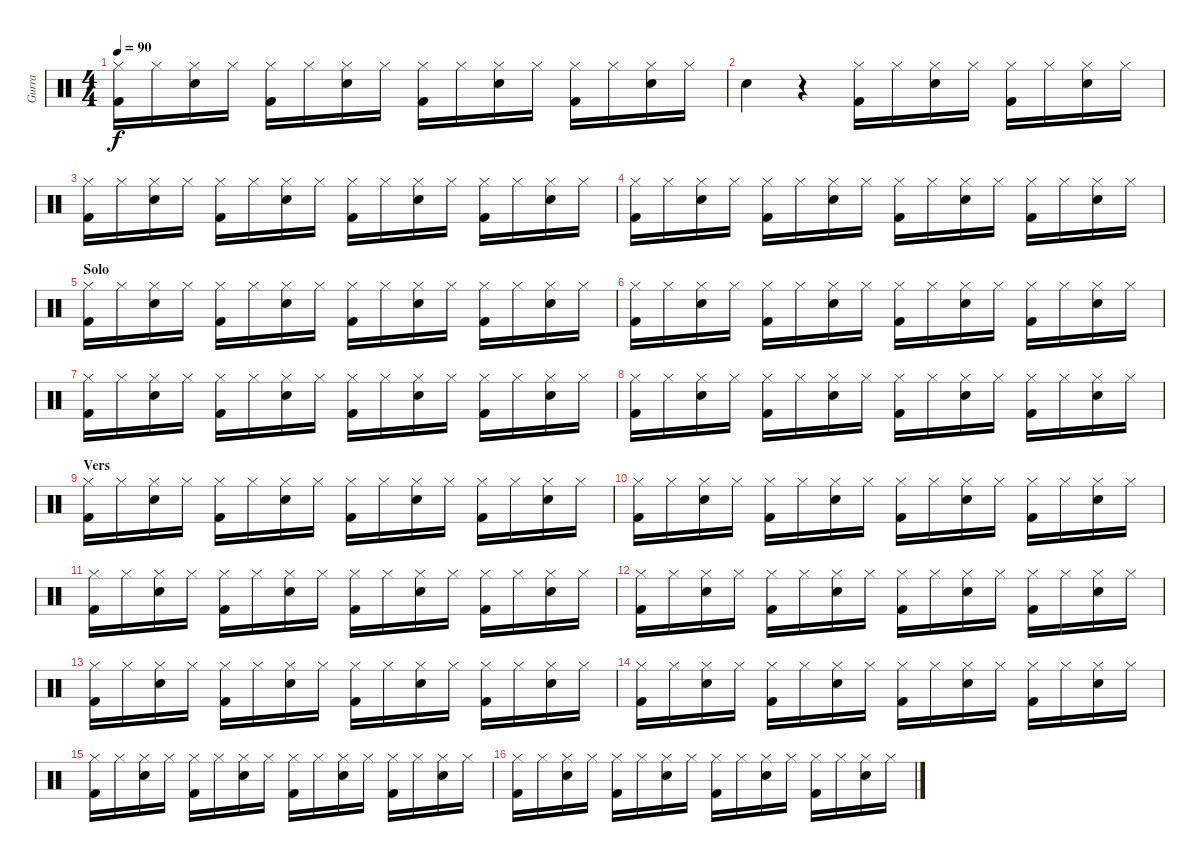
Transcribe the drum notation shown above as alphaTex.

\track ("Gurra" "Gurra") {instrument percussion}
\staff {score}
\articulation defaults
\ts (4 4)
\tempo 90
\clef neutral
\ks c
("Kick (hit) 2" "Hi-Hat (closed)").16{dy f} "Hi-Hat (closed)".16 ("Snare (hit) 2" "Hi-Hat (closed)").16 "Hi-Hat (closed)".16 ("Kick (hit) 2" "Hi-Hat (closed)").16 "Hi-Hat (closed)".16 ("Snare (hit) 2" "Hi-Hat (closed)").16 "Hi-Hat (closed)".16 ("Kick (hit) 2" "Hi-Hat (closed)").16 "Hi-Hat (closed)".16 ("Snare (hit) 2" "Hi-Hat (closed)").16 "Hi-Hat (closed)".16 ("Kick (hit) 2" "Hi-Hat (closed)").16 "Hi-Hat (closed)".16 ("Snare (hit) 2" "Hi-Hat (closed)").16 "Hi-Hat (closed)".16 |
"Snare (hit) 2".4 r.4 ("Kick (hit) 2" "Hi-Hat (closed)").16 "Hi-Hat (closed)".16 ("Snare (hit) 2" "Hi-Hat (closed)").16 "Hi-Hat (closed)".16 ("Kick (hit) 2" "Hi-Hat (closed)").16 "Hi-Hat (closed)".16 ("Snare (hit) 2" "Hi-Hat (closed)").16 "Hi-Hat (closed)".16 |
("Kick (hit) 2" "Hi-Hat (closed)").16 "Hi-Hat (closed)".16 ("Snare (hit) 2" "Hi-Hat (closed)").16 "Hi-Hat (closed)".16 ("Kick (hit) 2" "Hi-Hat (closed)").16 "Hi-Hat (closed)".16 ("Snare (hit) 2" "Hi-Hat (closed)").16 "Hi-Hat (closed)".16 ("Kick (hit) 2" "Hi-Hat (closed)").16 "Hi-Hat (closed)".16 ("Snare (hit) 2" "Hi-Hat (closed)").16 "Hi-Hat (closed)".16 ("Kick (hit) 2" "Hi-Hat (closed)").16 "Hi-Hat (closed)".16 ("Snare (hit) 2" "Hi-Hat (closed)").16 "Hi-Hat (closed)".16 |
("Kick (hit) 2" "Hi-Hat (closed)").16 "Hi-Hat (closed)".16 ("Snare (hit) 2" "Hi-Hat (closed)").16 "Hi-Hat (closed)".16 ("Kick (hit) 2" "Hi-Hat (closed)").16 "Hi-Hat (closed)".16 ("Snare (hit) 2" "Hi-Hat (closed)").16 "Hi-Hat (closed)".16 ("Kick (hit) 2" "Hi-Hat (closed)").16 "Hi-Hat (closed)".16 ("Snare (hit) 2" "Hi-Hat (closed)").16 "Hi-Hat (closed)".16 ("Kick (hit) 2" "Hi-Hat (closed)").16 "Hi-Hat (closed)".16 ("Snare (hit) 2" "Hi-Hat (closed)").16 "Hi-Hat (closed)".16 |
\section ("" "Solo")
("Kick (hit) 2" "Hi-Hat (closed)").16 "Hi-Hat (closed)".16 ("Snare (hit) 2" "Hi-Hat (closed)").16 "Hi-Hat (closed)".16 ("Kick (hit) 2" "Hi-Hat (closed)").16 "Hi-Hat (closed)".16 ("Snare (hit) 2" "Hi-Hat (closed)").16 "Hi-Hat (closed)".16 ("Kick (hit) 2" "Hi-Hat (closed)").16 "Hi-Hat (closed)".16 ("Snare (hit) 2" "Hi-Hat (closed)").16 "Hi-Hat (closed)".16 ("Kick (hit) 2" "Hi-Hat (closed)").16 "Hi-Hat (closed)".16 ("Snare (hit) 2" "Hi-Hat (closed)").16 "Hi-Hat (closed)".16 |
("Kick (hit) 2" "Hi-Hat (closed)").16 "Hi-Hat (closed)".16 ("Snare (hit) 2" "Hi-Hat (closed)").16 "Hi-Hat (closed)".16 ("Kick (hit) 2" "Hi-Hat (closed)").16 "Hi-Hat (closed)".16 ("Snare (hit) 2" "Hi-Hat (closed)").16 "Hi-Hat (closed)".16 ("Kick (hit) 2" "Hi-Hat (closed)").16 "Hi-Hat (closed)".16 ("Snare (hit) 2" "Hi-Hat (closed)").16 "Hi-Hat (closed)".16 ("Kick (hit) 2" "Hi-Hat (closed)").16 "Hi-Hat (closed)".16 ("Snare (hit) 2" "Hi-Hat (closed)").16 "Hi-Hat (closed)".16 |
("Kick (hit) 2" "Hi-Hat (closed)").16 "Hi-Hat (closed)".16 ("Snare (hit) 2" "Hi-Hat (closed)").16 "Hi-Hat (closed)".16 ("Kick (hit) 2" "Hi-Hat (closed)").16 "Hi-Hat (closed)".16 ("Snare (hit) 2" "Hi-Hat (closed)").16 "Hi-Hat (closed)".16 ("Kick (hit) 2" "Hi-Hat (closed)").16 "Hi-Hat (closed)".16 ("Snare (hit) 2" "Hi-Hat (closed)").16 "Hi-Hat (closed)".16 ("Kick (hit) 2" "Hi-Hat (closed)").16 "Hi-Hat (closed)".16 ("Snare (hit) 2" "Hi-Hat (closed)").16 "Hi-Hat (closed)".16 |
("Kick (hit) 2" "Hi-Hat (closed)").16 "Hi-Hat (closed)".16 ("Snare (hit) 2" "Hi-Hat (closed)").16 "Hi-Hat (closed)".16 ("Kick (hit) 2" "Hi-Hat (closed)").16 "Hi-Hat (closed)".16 ("Snare (hit) 2" "Hi-Hat (closed)").16 "Hi-Hat (closed)".16 ("Kick (hit) 2" "Hi-Hat (closed)").16 "Hi-Hat (closed)".16 ("Snare (hit) 2" "Hi-Hat (closed)").16 "Hi-Hat (closed)".16 ("Kick (hit) 2" "Hi-Hat (closed)").16 "Hi-Hat (closed)".16 ("Snare (hit) 2" "Hi-Hat (closed)").16 "Hi-Hat (closed)".16 |
\section ("" "Vers")
("Kick (hit) 2" "Hi-Hat (closed)").16 "Hi-Hat (closed)".16 ("Snare (hit) 2" "Hi-Hat (closed)").16 "Hi-Hat (closed)".16 ("Kick (hit) 2" "Hi-Hat (closed)").16 "Hi-Hat (closed)".16 ("Snare (hit) 2" "Hi-Hat (closed)").16 "Hi-Hat (closed)".16 ("Kick (hit) 2" "Hi-Hat (closed)").16 "Hi-Hat (closed)".16 ("Snare (hit) 2" "Hi-Hat (closed)").16 "Hi-Hat (closed)".16 ("Kick (hit) 2" "Hi-Hat (closed)").16 "Hi-Hat (closed)".16 ("Snare (hit) 2" "Hi-Hat (closed)").16 "Hi-Hat (closed)".16 |
("Kick (hit) 2" "Hi-Hat (closed)").16 "Hi-Hat (closed)".16 ("Snare (hit) 2" "Hi-Hat (closed)").16 "Hi-Hat (closed)".16 ("Kick (hit) 2" "Hi-Hat (closed)").16 "Hi-Hat (closed)".16 ("Snare (hit) 2" "Hi-Hat (closed)").16 "Hi-Hat (closed)".16 ("Kick (hit) 2" "Hi-Hat (closed)").16 "Hi-Hat (closed)".16 ("Snare (hit) 2" "Hi-Hat (closed)").16 "Hi-Hat (closed)".16 ("Kick (hit) 2" "Hi-Hat (closed)").16 "Hi-Hat (closed)".16 ("Snare (hit) 2" "Hi-Hat (closed)").16 "Hi-Hat (closed)".16 |
("Kick (hit) 2" "Hi-Hat (closed)").16 "Hi-Hat (closed)".16 ("Snare (hit) 2" "Hi-Hat (closed)").16 "Hi-Hat (closed)".16 ("Kick (hit) 2" "Hi-Hat (closed)").16 "Hi-Hat (closed)".16 ("Snare (hit) 2" "Hi-Hat (closed)").16 "Hi-Hat (closed)".16 ("Kick (hit) 2" "Hi-Hat (closed)").16 "Hi-Hat (closed)".16 ("Snare (hit) 2" "Hi-Hat (closed)").16 "Hi-Hat (closed)".16 ("Kick (hit) 2" "Hi-Hat (closed)").16 "Hi-Hat (closed)".16 ("Snare (hit) 2" "Hi-Hat (closed)").16 "Hi-Hat (closed)".16 |
("Kick (hit) 2" "Hi-Hat (closed)").16 "Hi-Hat (closed)".16 ("Snare (hit) 2" "Hi-Hat (closed)").16 "Hi-Hat (closed)".16 ("Kick (hit) 2" "Hi-Hat (closed)").16 "Hi-Hat (closed)".16 ("Snare (hit) 2" "Hi-Hat (closed)").16 "Hi-Hat (closed)".16 ("Kick (hit) 2" "Hi-Hat (closed)").16 "Hi-Hat (closed)".16 ("Snare (hit) 2" "Hi-Hat (closed)").16 "Hi-Hat (closed)".16 ("Kick (hit) 2" "Hi-Hat (closed)").16 "Hi-Hat (closed)".16 ("Snare (hit) 2" "Hi-Hat (closed)").16 "Hi-Hat (closed)".16 |
("Kick (hit) 2" "Hi-Hat (closed)").16 "Hi-Hat (closed)".16 ("Snare (hit) 2" "Hi-Hat (closed)").16 "Hi-Hat (closed)".16 ("Kick (hit) 2" "Hi-Hat (closed)").16 "Hi-Hat (closed)".16 ("Snare (hit) 2" "Hi-Hat (closed)").16 "Hi-Hat (closed)".16 ("Kick (hit) 2" "Hi-Hat (closed)").16 "Hi-Hat (closed)".16 ("Snare (hit) 2" "Hi-Hat (closed)").16 "Hi-Hat (closed)".16 ("Kick (hit) 2" "Hi-Hat (closed)").16 "Hi-Hat (closed)".16 ("Snare (hit) 2" "Hi-Hat (closed)").16 "Hi-Hat (closed)".16 |
("Kick (hit) 2" "Hi-Hat (closed)").16 "Hi-Hat (closed)".16 ("Snare (hit) 2" "Hi-Hat (closed)").16 "Hi-Hat (closed)".16 ("Kick (hit) 2" "Hi-Hat (closed)").16 "Hi-Hat (closed)".16 ("Snare (hit) 2" "Hi-Hat (closed)").16 "Hi-Hat (closed)".16 ("Kick (hit) 2" "Hi-Hat (closed)").16 "Hi-Hat (closed)".16 ("Snare (hit) 2" "Hi-Hat (closed)").16 "Hi-Hat (closed)".16 ("Kick (hit) 2" "Hi-Hat (closed)").16 "Hi-Hat (closed)".16 ("Snare (hit) 2" "Hi-Hat (closed)").16 "Hi-Hat (closed)".16 |
("Kick (hit) 2" "Hi-Hat (closed)").16 "Hi-Hat (closed)".16 ("Snare (hit) 2" "Hi-Hat (closed)").16 "Hi-Hat (closed)".16 ("Kick (hit) 2" "Hi-Hat (closed)").16 "Hi-Hat (closed)".16 ("Snare (hit) 2" "Hi-Hat (closed)").16 "Hi-Hat (closed)".16 ("Kick (hit) 2" "Hi-Hat (closed)").16 "Hi-Hat (closed)".16 ("Snare (hit) 2" "Hi-Hat (closed)").16 "Hi-Hat (closed)".16 ("Kick (hit) 2" "Hi-Hat (closed)").16 "Hi-Hat (closed)".16 ("Snare (hit) 2" "Hi-Hat (closed)").16 "Hi-Hat (closed)".16 |
("Kick (hit) 2" "Hi-Hat (closed)").16 "Hi-Hat (closed)".16 ("Snare (hit) 2" "Hi-Hat (closed)").16 "Hi-Hat (closed)".16 ("Kick (hit) 2" "Hi-Hat (closed)").16 "Hi-Hat (closed)".16 ("Snare (hit) 2" "Hi-Hat (closed)").16 "Hi-Hat (closed)".16 ("Kick (hit) 2" "Hi-Hat (closed)").16 "Hi-Hat (closed)".16 ("Snare (hit) 2" "Hi-Hat (closed)").16 "Hi-Hat (closed)".16 ("Kick (hit) 2" "Hi-Hat (closed)").16 "Hi-Hat (closed)".16 ("Snare (hit) 2" "Hi-Hat (closed)").16 "Hi-Hat (closed)".16
